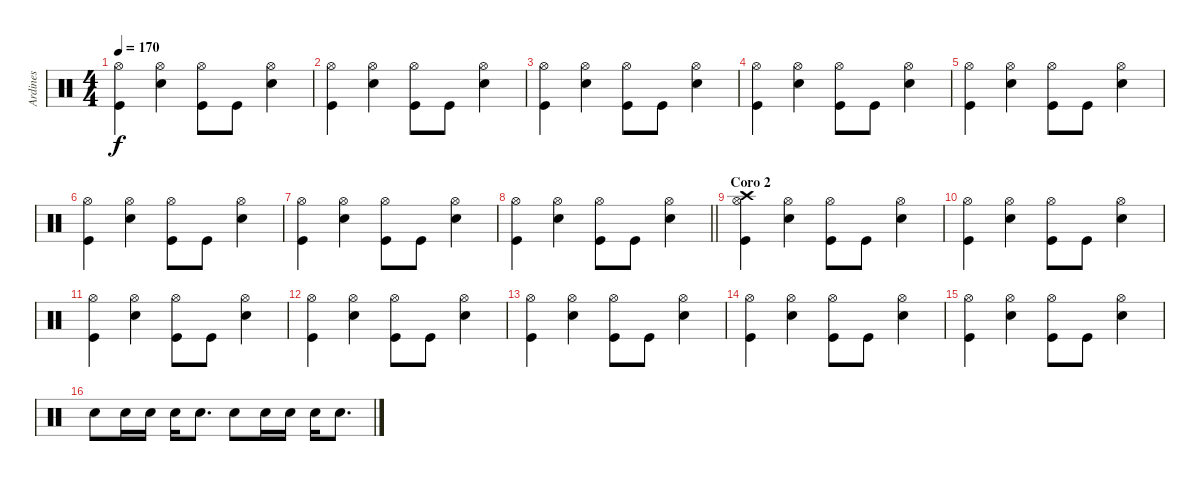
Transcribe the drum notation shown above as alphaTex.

\track ("Ardines" "Ardines") {instrument percussion}
\staff {score}
\articulation defaults
\ts (4 4)
\tempo 170
\clef neutral
\ks c
("Kick (hit)" "Hi-Hat (open)").4{dy f} ("Snare (hit) 2" "Hi-Hat (open)").4 ("Kick (hit)" "Hi-Hat (open)").8 "Kick (hit)".8 ("Snare (hit) 2" "Hi-Hat (open)").4 |
("Kick (hit)" "Hi-Hat (open)").4 ("Snare (hit) 2" "Hi-Hat (open)").4 ("Kick (hit)" "Hi-Hat (open)").8 "Kick (hit)".8 ("Snare (hit) 2" "Hi-Hat (open)").4 |
("Kick (hit)" "Hi-Hat (open)").4 ("Snare (hit) 2" "Hi-Hat (open)").4 ("Kick (hit)" "Hi-Hat (open)").8 "Kick (hit)".8 ("Snare (hit) 2" "Hi-Hat (open)").4 |
("Kick (hit)" "Hi-Hat (open)").4 ("Snare (hit) 2" "Hi-Hat (open)").4 ("Kick (hit)" "Hi-Hat (open)").8 "Kick (hit)".8 ("Snare (hit) 2" "Hi-Hat (open)").4 |
("Kick (hit)" "Hi-Hat (open)").4 ("Snare (hit) 2" "Hi-Hat (open)").4 ("Kick (hit)" "Hi-Hat (open)").8 "Kick (hit)".8 ("Snare (hit) 2" "Hi-Hat (open)").4 |
("Kick (hit)" "Hi-Hat (open)").4 ("Snare (hit) 2" "Hi-Hat (open)").4 ("Kick (hit)" "Hi-Hat (open)").8 "Kick (hit)".8 ("Snare (hit) 2" "Hi-Hat (open)").4 |
("Kick (hit)" "Hi-Hat (open)").4 ("Snare (hit) 2" "Hi-Hat (open)").4 ("Kick (hit)" "Hi-Hat (open)").8 "Kick (hit)".8 ("Snare (hit) 2" "Hi-Hat (open)").4 |
\barLineRight lightlight
("Kick (hit)" "Hi-Hat (open)").4 ("Snare (hit) 2" "Hi-Hat (open)").4 ("Kick (hit)" "Hi-Hat (open)").8 "Kick (hit)".8 ("Snare (hit) 2" "Hi-Hat (open)").4 |
\section ("" "Coro 2")
("Kick (hit)" "Hi-Hat (open)" "Crash high (hit)").4 ("Snare (hit) 2" "Hi-Hat (open)").4 ("Kick (hit)" "Hi-Hat (open)").8 "Kick (hit)".8 ("Snare (hit) 2" "Hi-Hat (open)").4 |
("Kick (hit)" "Hi-Hat (open)").4 ("Snare (hit) 2" "Hi-Hat (open)").4 ("Kick (hit)" "Hi-Hat (open)").8 "Kick (hit)".8 ("Snare (hit) 2" "Hi-Hat (open)").4 |
("Kick (hit)" "Hi-Hat (open)").4 ("Snare (hit) 2" "Hi-Hat (open)").4 ("Kick (hit)" "Hi-Hat (open)").8 "Kick (hit)".8 ("Snare (hit) 2" "Hi-Hat (open)").4 |
("Kick (hit)" "Hi-Hat (open)").4 ("Snare (hit) 2" "Hi-Hat (open)").4 ("Kick (hit)" "Hi-Hat (open)").8 "Kick (hit)".8 ("Snare (hit) 2" "Hi-Hat (open)").4 |
("Kick (hit)" "Hi-Hat (open)").4 ("Snare (hit) 2" "Hi-Hat (open)").4 ("Kick (hit)" "Hi-Hat (open)").8 "Kick (hit)".8 ("Snare (hit) 2" "Hi-Hat (open)").4 |
("Kick (hit)" "Hi-Hat (open)").4 ("Snare (hit) 2" "Hi-Hat (open)").4 ("Kick (hit)" "Hi-Hat (open)").8 "Kick (hit)".8 ("Snare (hit) 2" "Hi-Hat (open)").4 |
("Kick (hit)" "Hi-Hat (open)").4 ("Snare (hit) 2" "Hi-Hat (open)").4 ("Kick (hit)" "Hi-Hat (open)").8 "Kick (hit)".8 ("Snare (hit) 2" "Hi-Hat (open)").4 |
"Snare (hit) 2".8 "Snare (hit) 2".16 "Snare (hit) 2".16 "Snare (hit) 2".16 "Snare (hit) 2".8{d} "Snare (hit) 2".8 "Snare (hit) 2".16 "Snare (hit) 2".16 "Snare (hit) 2".16 "Snare (hit) 2".8{d}
